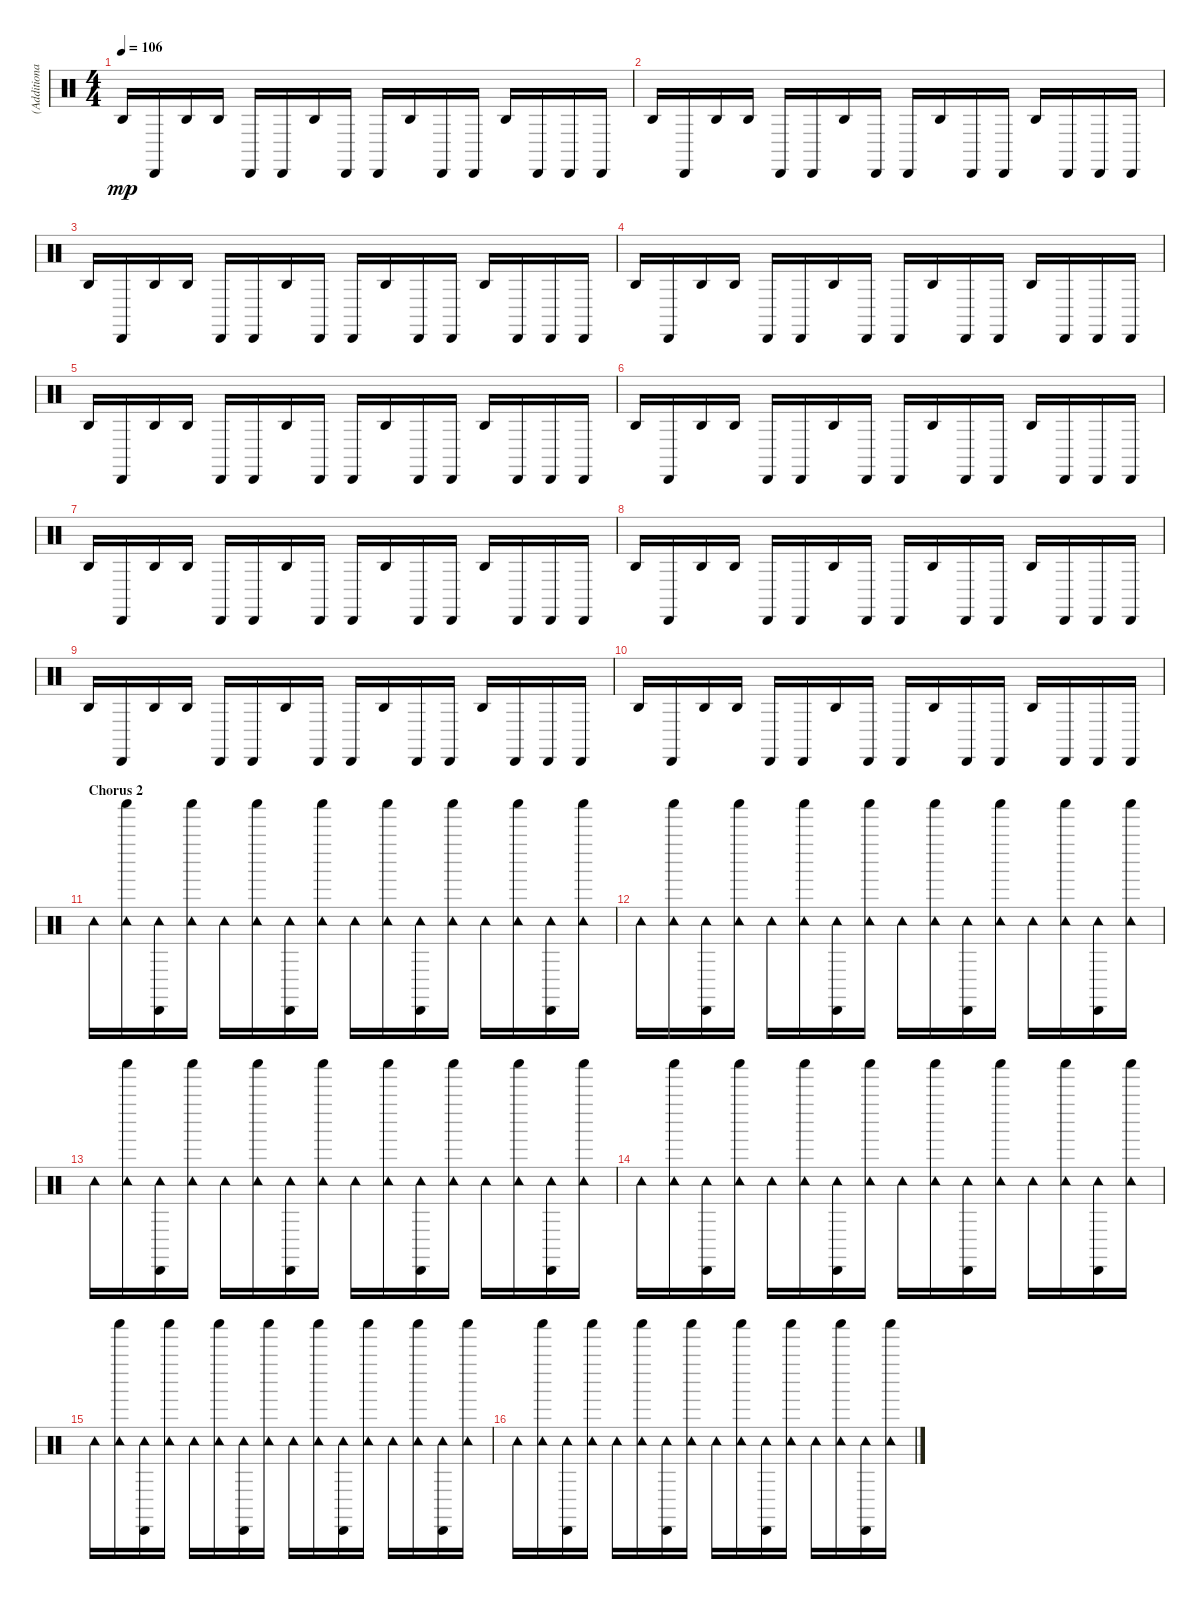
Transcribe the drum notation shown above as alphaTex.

\track ("(Additional Percussions)" "(Additiona") {instrument percussion}
\staff {score}
\articulation defaults
\ts (4 4)
\tempo 106
\clef neutral
\ks c "Agogo high (hit)".16{dy mp} "Cabasa (hit)".16 "Agogo high (hit)".16 "Agogo high (hit)".16 "Cabasa (hit)".16 "Cabasa (hit)".16 "Agogo high (hit)".16 "Cabasa (hit)".16 "Cabasa (hit)".16 "Agogo high (hit)".16 "Cabasa (hit)".16 "Cabasa (hit)".16 "Agogo high (hit)".16 "Cabasa (hit)".16 "Cabasa (hit)".16 "Cabasa (hit)".16
|
"Agogo high (hit)".16 "Cabasa (hit)".16 "Agogo high (hit)".16 "Agogo high (hit)".16 "Cabasa (hit)".16 "Cabasa (hit)".16 "Agogo high (hit)".16 "Cabasa (hit)".16 "Cabasa (hit)".16 "Agogo high (hit)".16 "Cabasa (hit)".16 "Cabasa (hit)".16 "Agogo high (hit)".16 "Cabasa (hit)".16 "Cabasa (hit)".16 "Cabasa (hit)".16 |
"Agogo high (hit)".16 "Cabasa (hit)".16 "Agogo high (hit)".16 "Agogo high (hit)".16 "Cabasa (hit)".16 "Cabasa (hit)".16 "Agogo high (hit)".16 "Cabasa (hit)".16 "Cabasa (hit)".16 "Agogo high (hit)".16 "Cabasa (hit)".16 "Cabasa (hit)".16 "Agogo high (hit)".16 "Cabasa (hit)".16 "Cabasa (hit)".16 "Cabasa (hit)".16 |
"Agogo high (hit)".16 "Cabasa (hit)".16 "Agogo high (hit)".16 "Agogo high (hit)".16 "Cabasa (hit)".16 "Cabasa (hit)".16 "Agogo high (hit)".16 "Cabasa (hit)".16 "Cabasa (hit)".16 "Agogo high (hit)".16 "Cabasa (hit)".16 "Cabasa (hit)".16 "Agogo high (hit)".16 "Cabasa (hit)".16 "Cabasa (hit)".16 "Cabasa (hit)".16 |
"Agogo high (hit)".16 "Cabasa (hit)".16 "Agogo high (hit)".16 "Agogo high (hit)".16 "Cabasa (hit)".16 "Cabasa (hit)".16 "Agogo high (hit)".16 "Cabasa (hit)".16 "Cabasa (hit)".16 "Agogo high (hit)".16 "Cabasa (hit)".16 "Cabasa (hit)".16 "Agogo high (hit)".16 "Cabasa (hit)".16 "Cabasa (hit)".16 "Cabasa (hit)".16 |
"Agogo high (hit)".16 "Cabasa (hit)".16 "Agogo high (hit)".16 "Agogo high (hit)".16 "Cabasa (hit)".16 "Cabasa (hit)".16 "Agogo high (hit)".16 "Cabasa (hit)".16 "Cabasa (hit)".16 "Agogo high (hit)".16 "Cabasa (hit)".16 "Cabasa (hit)".16 "Agogo high (hit)".16 "Cabasa (hit)".16 "Cabasa (hit)".16 "Cabasa (hit)".16 |
"Agogo high (hit)".16 "Cabasa (hit)".16 "Agogo high (hit)".16 "Agogo high (hit)".16 "Cabasa (hit)".16 "Cabasa (hit)".16 "Agogo high (hit)".16 "Cabasa (hit)".16 "Cabasa (hit)".16 "Agogo high (hit)".16 "Cabasa (hit)".16 "Cabasa (hit)".16 "Agogo high (hit)".16 "Cabasa (hit)".16 "Cabasa (hit)".16 "Cabasa (hit)".16 |
"Agogo high (hit)".16 "Cabasa (hit)".16 "Agogo high (hit)".16 "Agogo high (hit)".16 "Cabasa (hit)".16 "Cabasa (hit)".16 "Agogo high (hit)".16 "Cabasa (hit)".16 "Cabasa (hit)".16 "Agogo high (hit)".16 "Cabasa (hit)".16 "Cabasa (hit)".16 "Agogo high (hit)".16 "Cabasa (hit)".16 "Cabasa (hit)".16 "Cabasa (hit)".16 |
"Agogo high (hit)".16 "Cabasa (hit)".16 "Agogo high (hit)".16 "Agogo high (hit)".16 "Cabasa (hit)".16 "Cabasa (hit)".16 "Agogo high (hit)".16 "Cabasa (hit)".16 "Cabasa (hit)".16 "Agogo high (hit)".16 "Cabasa (hit)".16 "Cabasa (hit)".16 "Agogo high (hit)".16 "Cabasa (hit)".16 "Cabasa (hit)".16 "Cabasa (hit)".16 |
"Agogo high (hit)".16 "Cabasa (hit)".16 "Agogo high (hit)".16 "Agogo high (hit)".16 "Cabasa (hit)".16 "Cabasa (hit)".16 "Agogo high (hit)".16 "Cabasa (hit)".16 "Cabasa (hit)".16 "Agogo high (hit)".16 "Cabasa (hit)".16 "Cabasa (hit)".16 "Agogo high (hit)".16 "Cabasa (hit)".16 "Cabasa (hit)".16 "Cabasa (hit)".16 |
\section ("" "Chorus 2")
"Tambourine (hit)".16 ("Tambourine (hit)" "Shaker (hit)").16 ("Cabasa (hit)" "Tambourine (hit)").16 ("Tambourine (hit)" "Shaker (hit)").16 "Tambourine (hit)".16 ("Tambourine (hit)" "Shaker (hit)").16 ("Cabasa (hit)" "Tambourine (hit)").16 ("Tambourine (hit)" "Shaker (hit)").16 "Tambourine (hit)".16 ("Tambourine (hit)" "Shaker (hit)").16 ("Cabasa (hit)" "Tambourine (hit)").16 ("Tambourine (hit)" "Shaker (hit)").16 "Tambourine (hit)".16 ("Tambourine (hit)" "Shaker (hit)").16 ("Cabasa (hit)" "Tambourine (hit)").16 ("Tambourine (hit)" "Shaker (hit)").16 |
"Tambourine (hit)".16 ("Tambourine (hit)" "Shaker (hit)").16 ("Cabasa (hit)" "Tambourine (hit)").16 ("Tambourine (hit)" "Shaker (hit)").16 "Tambourine (hit)".16 ("Tambourine (hit)" "Shaker (hit)").16 ("Cabasa (hit)" "Tambourine (hit)").16 ("Tambourine (hit)" "Shaker (hit)").16 "Tambourine (hit)".16 ("Tambourine (hit)" "Shaker (hit)").16 ("Cabasa (hit)" "Tambourine (hit)").16 ("Tambourine (hit)" "Shaker (hit)").16 "Tambourine (hit)".16 ("Tambourine (hit)" "Shaker (hit)").16 ("Cabasa (hit)" "Tambourine (hit)").16 ("Tambourine (hit)" "Shaker (hit)").16 |
"Tambourine (hit)".16 ("Tambourine (hit)" "Shaker (hit)").16 ("Cabasa (hit)" "Tambourine (hit)").16 ("Tambourine (hit)" "Shaker (hit)").16 "Tambourine (hit)".16 ("Tambourine (hit)" "Shaker (hit)").16 ("Cabasa (hit)" "Tambourine (hit)").16 ("Tambourine (hit)" "Shaker (hit)").16 "Tambourine (hit)".16 ("Tambourine (hit)" "Shaker (hit)").16 ("Cabasa (hit)" "Tambourine (hit)").16 ("Tambourine (hit)" "Shaker (hit)").16 "Tambourine (hit)".16 ("Tambourine (hit)" "Shaker (hit)").16 ("Cabasa (hit)" "Tambourine (hit)").16 ("Tambourine (hit)" "Shaker (hit)").16 |
"Tambourine (hit)".16 ("Tambourine (hit)" "Shaker (hit)").16 ("Cabasa (hit)" "Tambourine (hit)").16 ("Tambourine (hit)" "Shaker (hit)").16 "Tambourine (hit)".16 ("Tambourine (hit)" "Shaker (hit)").16 ("Cabasa (hit)" "Tambourine (hit)").16 ("Tambourine (hit)" "Shaker (hit)").16 "Tambourine (hit)".16 ("Tambourine (hit)" "Shaker (hit)").16 ("Cabasa (hit)" "Tambourine (hit)").16 ("Tambourine (hit)" "Shaker (hit)").16 "Tambourine (hit)".16 ("Tambourine (hit)" "Shaker (hit)").16 ("Cabasa (hit)" "Tambourine (hit)").16 ("Tambourine (hit)" "Shaker (hit)").16 |
"Tambourine (hit)".16 ("Tambourine (hit)" "Shaker (hit)").16 ("Cabasa (hit)" "Tambourine (hit)").16 ("Tambourine (hit)" "Shaker (hit)").16 "Tambourine (hit)".16 ("Tambourine (hit)" "Shaker (hit)").16 ("Cabasa (hit)" "Tambourine (hit)").16 ("Tambourine (hit)" "Shaker (hit)").16 "Tambourine (hit)".16 ("Tambourine (hit)" "Shaker (hit)").16 ("Cabasa (hit)" "Tambourine (hit)").16 ("Tambourine (hit)" "Shaker (hit)").16 "Tambourine (hit)".16 ("Tambourine (hit)" "Shaker (hit)").16 ("Cabasa (hit)" "Tambourine (hit)").16 ("Tambourine (hit)" "Shaker (hit)").16 |
"Tambourine (hit)".16 ("Tambourine (hit)" "Shaker (hit)").16 ("Cabasa (hit)" "Tambourine (hit)").16 ("Tambourine (hit)" "Shaker (hit)").16 "Tambourine (hit)".16 ("Tambourine (hit)" "Shaker (hit)").16 ("Cabasa (hit)" "Tambourine (hit)").16 ("Tambourine (hit)" "Shaker (hit)").16 "Tambourine (hit)".16 ("Tambourine (hit)" "Shaker (hit)").16 ("Cabasa (hit)" "Tambourine (hit)").16 ("Tambourine (hit)" "Shaker (hit)").16 "Tambourine (hit)".16 ("Tambourine (hit)" "Shaker (hit)").16 ("Cabasa (hit)" "Tambourine (hit)").16 ("Tambourine (hit)" "Shaker (hit)").16
